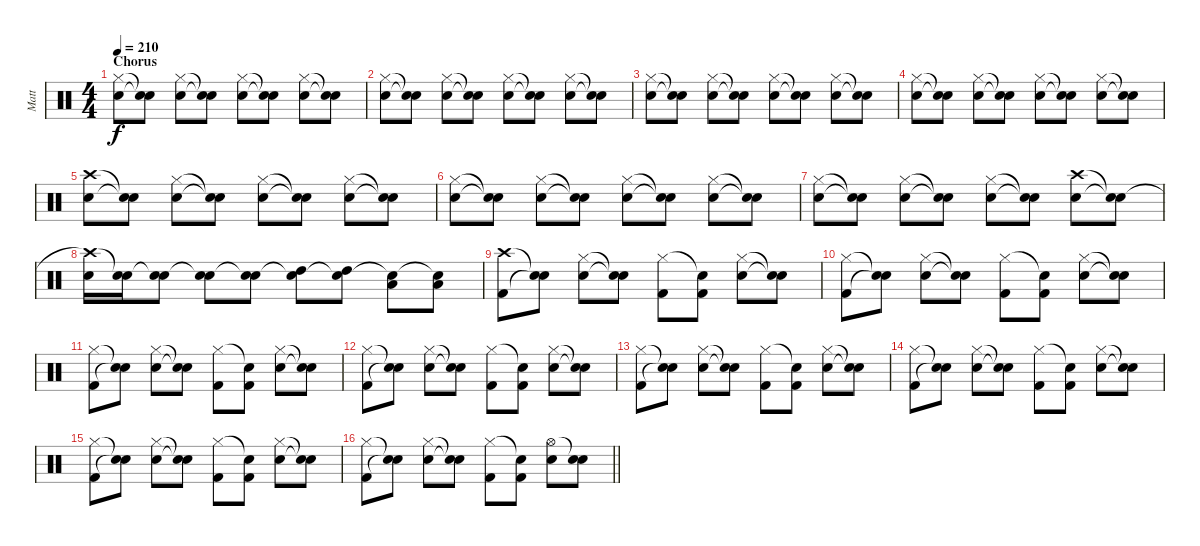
\track ("Matt" "Matt") {instrument percussion}
\staff {score}
\articulation defaults
\ts (4 4)
\section ("" "Chorus")
\tempo 210
\clef neutral
\ks c
("Hi-Hat (closed)" "Snare (hit) 2").8{dy f} ("Snare (hit)"{t} "Snare (hit)"{t}).8 ("Hi-Hat (closed)" "Snare (hit) 2").8 ("Snare (hit)"{t} "Snare (hit)"{t}).8 ("Hi-Hat (closed)" "Snare (hit) 2").8 ("Snare (hit)"{t} "Snare (hit)"{t}).8 ("Hi-Hat (closed)" "Snare (hit) 2").8 ("Snare (hit)"{t} "Snare (hit)"{t}).8 |
("Hi-Hat (closed)" "Snare (hit) 2").8 ("Snare (hit)"{t} "Snare (hit)"{t}).8 ("Hi-Hat (closed)" "Snare (hit) 2").8 ("Snare (hit)"{t} "Snare (hit)"{t}).8 ("Hi-Hat (closed)" "Snare (hit) 2").8 ("Snare (hit)"{t} "Snare (hit)"{t}).8 ("Hi-Hat (closed)" "Snare (hit) 2").8 ("Snare (hit)"{t} "Snare (hit)"{t}).8 |
("Hi-Hat (closed)" "Snare (hit) 2").8 ("Snare (hit)"{t} "Snare (hit)"{t}).8 ("Hi-Hat (closed)" "Snare (hit) 2").8 ("Snare (hit)"{t} "Snare (hit)"{t}).8 ("Hi-Hat (closed)" "Snare (hit) 2").8 ("Snare (hit)"{t} "Snare (hit)"{t}).8 ("Hi-Hat (closed)" "Snare (hit) 2").8 ("Snare (hit)"{t} "Snare (hit)"{t}).8 |
("Hi-Hat (closed)" "Snare (hit) 2").8 ("Snare (hit)"{t} "Snare (hit)"{t}).8 ("Hi-Hat (closed)" "Snare (hit) 2").8 ("Snare (hit)"{t} "Snare (hit)"{t}).8 ("Hi-Hat (closed)" "Snare (hit) 2").8 ("Snare (hit)"{t} "Snare (hit)"{t}).8 ("Hi-Hat (closed)" "Snare (hit) 2").8 ("Snare (hit)"{t} "Snare (hit)"{t}).8 |
("Crash high (hit)" "Snare (hit) 2").8 ("Snare (hit)"{t} "Snare (hit)"{t}).8 ("Hi-Hat (closed)" "Snare (hit) 2").8 ("Snare (hit)"{t} "Snare (hit)"{t}).8 ("Hi-Hat (closed)" "Snare (hit) 2").8 ("Snare (hit)"{t} "Snare (hit)"{t}).8 ("Hi-Hat (closed)" "Snare (hit) 2").8 ("Snare (hit)"{t} "Snare (hit)"{t}).8 |
("Hi-Hat (closed)" "Snare (hit) 2").8 ("Snare (hit)"{t} "Snare (hit)"{t}).8 ("Hi-Hat (closed)" "Snare (hit) 2").8 ("Snare (hit)"{t} "Snare (hit)"{t}).8 ("Hi-Hat (closed)" "Snare (hit) 2").8 ("Snare (hit)"{t} "Snare (hit)"{t}).8 ("Hi-Hat (closed)" "Snare (hit) 2").8 ("Snare (hit)"{t} "Snare (hit)"{t}).8 |
("Hi-Hat (closed)" "Snare (hit) 2").8 ("Snare (hit)"{t} "Snare (hit)"{t}).8 ("Hi-Hat (closed)" "Snare (hit) 2").8 ("Snare (hit)"{t} "Snare (hit)"{t}).8 ("Hi-Hat (closed)" "Snare (hit) 2").8 ("Snare (hit)"{t} "Snare (hit)"{t}).8 ("Crash high (hit)" "Snare (hit) 2").8 ("Snare (hit)"{t} "Snare (hit)"{t}).8 |
("Crash high (hit)"{t} "Snare (hit) 2").16 ("Snare (hit)"{t} "Snare (hit) 2").16 ("Snare (hit)"{t} "Snare (hit) 2").8 ("Snare (hit)"{t} "Snare (hit) 2").8 ("Snare (hit)"{t} "Snare (hit) 2").8 ("Snare (hit)"{t} "High Tom (hit)").8 ("Snare (hit)"{t} "High Tom (hit)").8 ("Snare (hit)"{t} "Low Tom (hit)").8 ("Snare (hit)"{t} "Low Tom (hit)").8 |
("Crash high (hit)" "Kick (hit) 2").8 ("Snare (hit)"{t} "Snare (hit)"{t}).8 ("Hi-Hat (closed)" "Snare (hit) 2").8 ("Snare (hit)"{t} "Snare (hit)"{t}).8 ("Hi-Hat (closed)" "Kick (hit) 2").8 ("Snare (hit)"{t} "Kick (hit) 2").8 ("Hi-Hat (closed)" "Snare (hit) 2").8 ("Snare (hit)"{t} "Snare (hit)"{t}).8 |
("Hi-Hat (closed)" "Kick (hit) 2").8 ("Snare (hit)"{t} "Snare (hit)"{t}).8 ("Hi-Hat (closed)" "Snare (hit) 2").8 ("Snare (hit)"{t} "Snare (hit)"{t}).8 ("Hi-Hat (closed)" "Kick (hit) 2").8 ("Snare (hit)"{t} "Kick (hit) 2").8 ("Hi-Hat (closed)" "Snare (hit) 2").8 ("Snare (hit)"{t} "Snare (hit)"{t}).8 |
("Hi-Hat (closed)" "Kick (hit) 2").8 ("Snare (hit)"{t} "Snare (hit)"{t}).8 ("Hi-Hat (closed)" "Snare (hit) 2").8 ("Snare (hit)"{t} "Snare (hit)"{t}).8 ("Hi-Hat (closed)" "Kick (hit) 2").8 ("Snare (hit)"{t} "Kick (hit) 2").8 ("Hi-Hat (closed)" "Snare (hit) 2").8 ("Snare (hit)"{t} "Snare (hit)"{t}).8 |
("Hi-Hat (closed)" "Kick (hit) 2").8 ("Snare (hit)"{t} "Snare (hit)"{t}).8 ("Hi-Hat (closed)" "Snare (hit) 2").8 ("Snare (hit)"{t} "Snare (hit)"{t}).8 ("Hi-Hat (closed)" "Kick (hit) 2").8 ("Snare (hit)"{t} "Kick (hit) 2").8 ("Hi-Hat (closed)" "Snare (hit) 2").8 ("Snare (hit)"{t} "Snare (hit)"{t}).8 |
("Hi-Hat (closed)" "Kick (hit) 2").8 ("Snare (hit)"{t} "Snare (hit)"{t}).8 ("Hi-Hat (closed)" "Snare (hit) 2").8 ("Snare (hit)"{t} "Snare (hit)"{t}).8 ("Hi-Hat (closed)" "Kick (hit) 2").8 ("Snare (hit)"{t} "Kick (hit) 2").8 ("Hi-Hat (closed)" "Snare (hit) 2").8 ("Snare (hit)"{t} "Snare (hit)"{t}).8 |
("Hi-Hat (closed)" "Kick (hit) 2").8 ("Snare (hit)"{t} "Snare (hit)"{t}).8 ("Hi-Hat (closed)" "Snare (hit) 2").8 ("Snare (hit)"{t} "Snare (hit)"{t}).8 ("Hi-Hat (closed)" "Kick (hit) 2").8 ("Snare (hit)"{t} "Kick (hit) 2").8 ("Hi-Hat (closed)" "Snare (hit) 2").8 ("Snare (hit)"{t} "Snare (hit)"{t}).8 |
("Hi-Hat (closed)" "Kick (hit) 2").8 ("Snare (hit)"{t} "Snare (hit)"{t}).8 ("Hi-Hat (closed)" "Snare (hit) 2").8 ("Snare (hit)"{t} "Snare (hit)"{t}).8 ("Hi-Hat (closed)" "Kick (hit) 2").8 ("Snare (hit)"{t} "Kick (hit) 2").8 ("Hi-Hat (closed)" "Snare (hit) 2").8 ("Snare (hit)"{t} "Snare (hit)"{t}).8 |
\barLineRight lightlight
("Hi-Hat (closed)" "Kick (hit) 2").8 ("Snare (hit)"{t} "Snare (hit)"{t}).8 ("Hi-Hat (closed)" "Snare (hit) 2").8 ("Snare (hit)"{t} "Snare (hit)"{t}).8 ("Hi-Hat (closed)" "Kick (hit) 2").8 ("Snare (hit)"{t} "Kick (hit) 2").8 ("Hi-Hat (open)" "Snare (hit) 2").8 ("Snare (hit)"{t} "Snare (hit) 2").8
